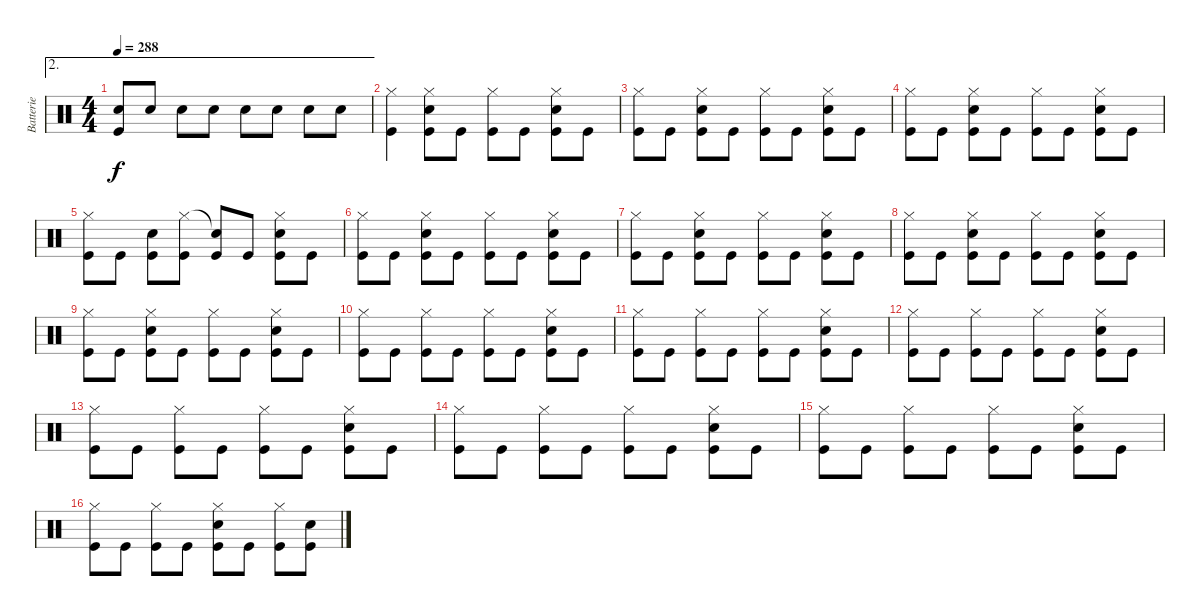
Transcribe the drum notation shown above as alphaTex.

\track ("Batterie" "Batterie") {instrument percussion}
\staff {score}
\articulation defaults
\ae 2
\ts (4 4)
\tempo 288
\clef neutral
\ks c
("Snare (hit) 2" "Kick (hit)").8{dy f} "Snare (hit) 2".8 "Snare (hit) 2".8 "Snare (hit) 2".8 "Snare (hit) 2".8 "Snare (hit) 2".8 "Snare (hit) 2".8 "Snare (hit) 2".8 |
("Hi-Hat (closed)" "Kick (hit)").4 ("Hi-Hat (closed)" "Snare (hit) 2" "Kick (hit)").8 "Kick (hit)".8 ("Hi-Hat (closed)" "Kick (hit)").8 "Kick (hit)".8 ("Hi-Hat (closed)" "Snare (hit) 2" "Kick (hit)").8 "Kick (hit)".8 |
("Hi-Hat (closed)" "Kick (hit)").8 "Kick (hit)".8 ("Hi-Hat (closed)" "Snare (hit) 2" "Kick (hit)").8 "Kick (hit)".8 ("Hi-Hat (closed)" "Kick (hit)").8 "Kick (hit)".8 ("Hi-Hat (closed)" "Snare (hit) 2" "Kick (hit)").8 "Kick (hit)".8 |
("Hi-Hat (closed)" "Kick (hit)").8 "Kick (hit)".8 ("Hi-Hat (closed)" "Snare (hit) 2" "Kick (hit)").8 "Kick (hit)".8 ("Hi-Hat (closed)" "Kick (hit)").8 "Kick (hit)".8 ("Hi-Hat (closed)" "Snare (hit) 2" "Kick (hit)").8 "Kick (hit)".8 |
("Hi-Hat (closed)" "Kick (hit)").8 "Kick (hit)".8 ("Snare (hit) 2" "Kick (hit)").8 ("Hi-Hat (closed)" "Kick (hit)").8 ("Snare (hit)"{t} "Kick (hit)").8 "Kick (hit)".8 ("Hi-Hat (closed)" "Snare (hit) 2" "Kick (hit)").8 "Kick (hit)".8 |
("Hi-Hat (closed)" "Kick (hit)").8 "Kick (hit)".8 ("Hi-Hat (closed)" "Snare (hit) 2" "Kick (hit)").8 "Kick (hit)".8 ("Hi-Hat (closed)" "Kick (hit)").8 "Kick (hit)".8 ("Hi-Hat (closed)" "Snare (hit) 2" "Kick (hit)").8 "Kick (hit)".8 |
("Hi-Hat (closed)" "Kick (hit)").8 "Kick (hit)".8 ("Hi-Hat (closed)" "Snare (hit) 2" "Kick (hit)").8 "Kick (hit)".8 ("Hi-Hat (closed)" "Kick (hit)").8 "Kick (hit)".8 ("Hi-Hat (closed)" "Snare (hit) 2" "Kick (hit)").8 "Kick (hit)".8 |
("Hi-Hat (closed)" "Kick (hit)").8 "Kick (hit)".8 ("Hi-Hat (closed)" "Snare (hit) 2" "Kick (hit)").8 "Kick (hit)".8 ("Hi-Hat (closed)" "Kick (hit)").8 "Kick (hit)".8 ("Hi-Hat (closed)" "Snare (hit) 2" "Kick (hit)").8 "Kick (hit)".8 |
("Hi-Hat (closed)" "Kick (hit)").8 "Kick (hit)".8 ("Hi-Hat (closed)" "Snare (hit) 2" "Kick (hit)").8 "Kick (hit)".8 ("Hi-Hat (closed)" "Kick (hit)").8 "Kick (hit)".8 ("Hi-Hat (closed)" "Snare (hit) 2" "Kick (hit)").8 "Kick (hit)".8 |
("Hi-Hat (closed)" "Kick (hit)").8 "Kick (hit)".8 ("Hi-Hat (closed)" "Kick (hit)").8 "Kick (hit)".8 ("Hi-Hat (closed)" "Kick (hit)").8 "Kick (hit)".8 ("Hi-Hat (closed)" "Snare (hit) 2" "Kick (hit)").8 "Kick (hit)".8 |
("Hi-Hat (closed)" "Kick (hit)").8 "Kick (hit)".8 ("Hi-Hat (closed)" "Kick (hit)").8 "Kick (hit)".8 ("Hi-Hat (closed)" "Kick (hit)").8 "Kick (hit)".8 ("Hi-Hat (closed)" "Snare (hit) 2" "Kick (hit)").8 "Kick (hit)".8 |
("Hi-Hat (closed)" "Kick (hit)").8 "Kick (hit)".8 ("Hi-Hat (closed)" "Kick (hit)").8 "Kick (hit)".8 ("Hi-Hat (closed)" "Kick (hit)").8 "Kick (hit)".8 ("Hi-Hat (closed)" "Snare (hit) 2" "Kick (hit)").8 "Kick (hit)".8 |
("Hi-Hat (closed)" "Kick (hit)").8 "Kick (hit)".8 ("Hi-Hat (closed)" "Kick (hit)").8 "Kick (hit)".8 ("Hi-Hat (closed)" "Kick (hit)").8 "Kick (hit)".8 ("Hi-Hat (closed)" "Snare (hit) 2" "Kick (hit)").8 "Kick (hit)".8 |
("Hi-Hat (closed)" "Kick (hit)").8 "Kick (hit)".8 ("Hi-Hat (closed)" "Kick (hit)").8 "Kick (hit)".8 ("Hi-Hat (closed)" "Kick (hit)").8 "Kick (hit)".8 ("Hi-Hat (closed)" "Snare (hit) 2" "Kick (hit)").8 "Kick (hit)".8 |
("Hi-Hat (closed)" "Kick (hit)").8 "Kick (hit)".8 ("Hi-Hat (closed)" "Kick (hit)").8 "Kick (hit)".8 ("Hi-Hat (closed)" "Kick (hit)").8 "Kick (hit)".8 ("Hi-Hat (closed)" "Snare (hit) 2" "Kick (hit)").8 "Kick (hit)".8 |
("Hi-Hat (closed)" "Kick (hit)").8 "Kick (hit)".8 ("Hi-Hat (closed)" "Kick (hit)").8 "Kick (hit)".8 ("Hi-Hat (closed)" "Snare (hit) 2" "Kick (hit)").8 "Kick (hit)".8 ("Hi-Hat (closed)" "Kick (hit)").8 ("Snare (hit) 2" "Kick (hit)").8
